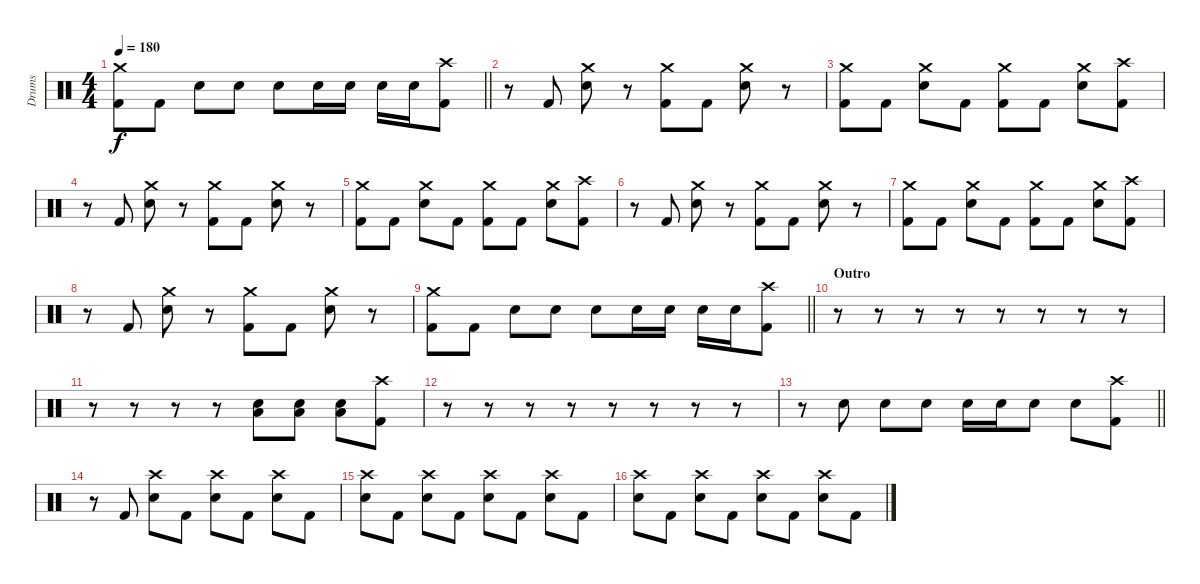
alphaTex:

\track ("Drums" "Drums") {instrument percussion}
\staff {score}
\articulation defaults
\ts (4 4)
\tempo 180
\clef neutral
\barLineRight lightlight
\ks c
("Crash medium (hit)" "Kick (hit) 2").8{dy f} "Kick (hit) 2".8 "Snare (hit) 2".8 "Snare (hit) 2".8 "Snare (hit) 2".8 "Snare (hit) 2".16 "Snare (hit) 2".16 "Snare (hit) 2".16 "Snare (hit) 2".16 ("Crash high (hit)" "Kick (hit) 2").8 |
r.8 "Kick (hit) 2".8 ("Crash medium (hit)" "Snare (hit) 2").8 r.8 ("Crash medium (hit)" "Kick (hit) 2").8 "Kick (hit) 2".8 ("Crash medium (hit)" "Snare (hit) 2").8 r.8 |
("Crash medium (hit)" "Kick (hit) 2").8 "Kick (hit) 2".8 ("Crash medium (hit)" "Snare (hit) 2").8 "Kick (hit) 2".8 ("Crash medium (hit)" "Kick (hit) 2").8 "Kick (hit) 2".8 ("Crash medium (hit)" "Snare (hit) 2").8 ("Crash high (hit)" "Kick (hit) 2").8 |
r.8 "Kick (hit) 2".8 ("Crash medium (hit)" "Snare (hit) 2").8 r.8 ("Crash medium (hit)" "Kick (hit) 2").8 "Kick (hit) 2".8 ("Crash medium (hit)" "Snare (hit) 2").8 r.8 |
("Crash medium (hit)" "Kick (hit) 2").8 "Kick (hit) 2".8 ("Crash medium (hit)" "Snare (hit) 2").8 "Kick (hit) 2".8 ("Crash medium (hit)" "Kick (hit) 2").8 "Kick (hit) 2".8 ("Crash medium (hit)" "Snare (hit) 2").8 ("Crash high (hit)" "Kick (hit) 2").8 |
r.8 "Kick (hit) 2".8 ("Crash medium (hit)" "Snare (hit) 2").8 r.8 ("Crash medium (hit)" "Kick (hit) 2").8 "Kick (hit) 2".8 ("Crash medium (hit)" "Snare (hit) 2").8 r.8 |
("Crash medium (hit)" "Kick (hit) 2").8 "Kick (hit) 2".8 ("Crash medium (hit)" "Snare (hit) 2").8 "Kick (hit) 2".8 ("Crash medium (hit)" "Kick (hit) 2").8 "Kick (hit) 2".8 ("Crash medium (hit)" "Snare (hit) 2").8 ("Crash high (hit)" "Kick (hit) 2").8 |
r.8 "Kick (hit) 2".8 ("Crash medium (hit)" "Snare (hit) 2").8 r.8 ("Crash medium (hit)" "Kick (hit) 2").8 "Kick (hit) 2".8 ("Crash medium (hit)" "Snare (hit) 2").8 r.8 |
\barLineRight lightlight
("Crash medium (hit)" "Kick (hit) 2").8 "Kick (hit) 2".8 "Snare (hit) 2".8 "Snare (hit) 2".8 "Snare (hit) 2".8 "Snare (hit) 2".16 "Snare (hit) 2".16 "Snare (hit) 2".16 "Snare (hit) 2".16 ("Crash high (hit)" "Kick (hit) 2").8 |
\section ("" "Outro")
r.8 r.8 r.8 r.8 r.8 r.8 r.8 r.8 |
r.8 r.8 r.8 r.8 ("Snare (hit) 2" "Low Tom (hit)").8 ("Snare (hit) 2" "Low Tom (hit)").8 ("Snare (hit) 2" "Low Tom (hit)").8 ("Crash high (hit)" "Kick (hit) 2").8 |
r.8 r.8 r.8 r.8 r.8 r.8 r.8 r.8 |
\barLineRight lightlight
r.8 "Snare (hit) 2".8 "Snare (hit) 2".8 "Snare (hit) 2".8 "Snare (hit) 2".16 "Snare (hit) 2".16 "Snare (hit) 2".8 "Snare (hit) 2".8 ("Crash high (hit)" "Kick (hit) 2").8 |
r.8 "Kick (hit) 2".8 ("Crash high (hit)" "Snare (hit) 2").8 "Kick (hit) 2".8 ("Crash high (hit)" "Snare (hit) 2").8 "Kick (hit) 2".8 ("Crash high (hit)" "Snare (hit) 2").8 "Kick (hit) 2".8 |
("Crash high (hit)" "Snare (hit) 2").8 "Kick (hit) 2".8 ("Crash high (hit)" "Snare (hit) 2").8 "Kick (hit) 2".8 ("Crash high (hit)" "Snare (hit) 2").8 "Kick (hit) 2".8 ("Crash high (hit)" "Snare (hit) 2").8 "Kick (hit) 2".8 |
("Crash high (hit)" "Snare (hit) 2").8 "Kick (hit) 2".8 ("Crash high (hit)" "Snare (hit) 2").8 "Kick (hit) 2".8 ("Crash high (hit)" "Snare (hit) 2").8 "Kick (hit) 2".8 ("Crash high (hit)" "Snare (hit) 2").8 "Kick (hit) 2".8
